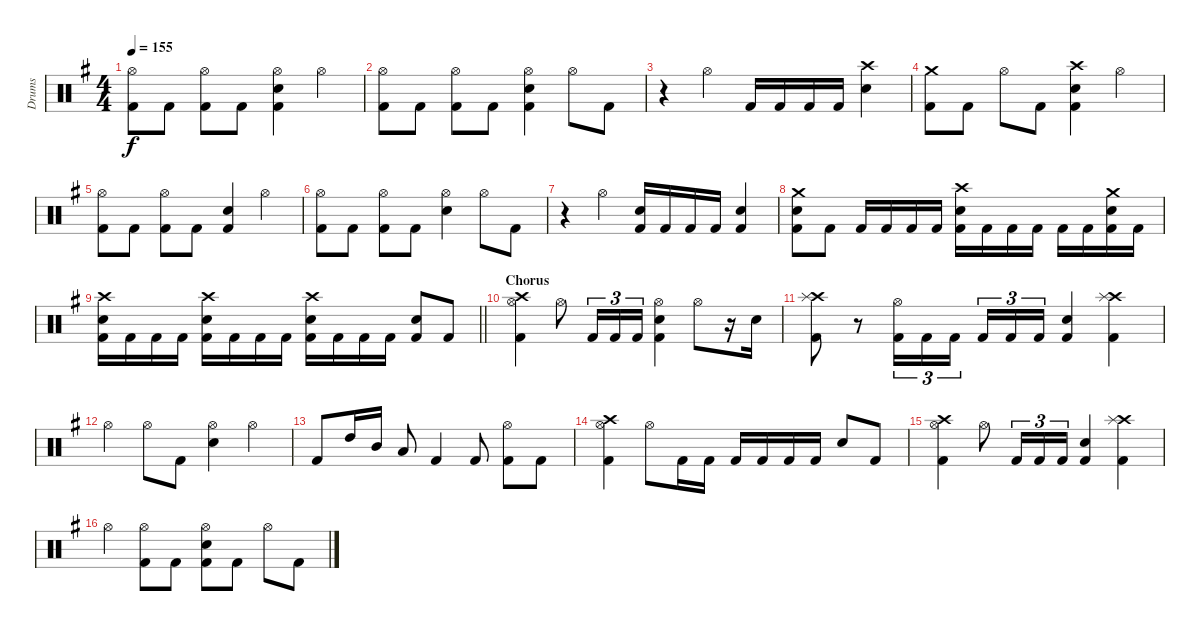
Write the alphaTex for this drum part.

\track ("Drums" "Drums") {instrument percussion}
\staff {score}
\articulation defaults
\ts (4 4)
\tempo 155
\clef neutral
\ks g
("Hi-Hat (open)" "Kick (hit) 2").8{dy f} "Kick (hit) 2".8 ("Hi-Hat (open)" "Kick (hit) 2").8 "Kick (hit) 2".8 ("Hi-Hat (open)" "Snare (hit) 2" "Kick (hit) 2").4 "Hi-Hat (open)".4 |
("Hi-Hat (open)" "Kick (hit) 2").8 "Kick (hit) 2".8 ("Hi-Hat (open)" "Kick (hit) 2").8 "Kick (hit) 2".8 ("Hi-Hat (open)" "Snare (hit) 2" "Kick (hit) 2").4 "Hi-Hat (open)".8 "Kick (hit) 2".8 |
r.4 "Hi-Hat (open)".4 "Kick (hit) 2".16 "Kick (hit) 2".16 "Kick (hit) 2".16 "Kick (hit) 2".16 ("Crash high (hit)" "Snare (hit) 2").4 |
("Crash medium (hit)" "Kick (hit) 2").8 "Kick (hit) 2".8 "Hi-Hat (open)".8 "Kick (hit) 2".8 ("Crash high (hit)" "Snare (hit) 2" "Kick (hit) 2").4 "Hi-Hat (open)".4 |
("Hi-Hat (open)" "Kick (hit) 2").8 "Kick (hit) 2".8 ("Hi-Hat (open)" "Kick (hit) 2").8 "Kick (hit) 2".8 ("Snare (hit) 2" "Kick (hit) 2").4 "Hi-Hat (open)".4 |
("Hi-Hat (open)" "Kick (hit) 2").8 "Kick (hit) 2".8 ("Hi-Hat (open)" "Kick (hit) 2").8 "Kick (hit) 2".8 ("Hi-Hat (open)" "Snare (hit) 2").4 "Hi-Hat (open)".8 "Kick (hit) 2".8 |
r.4 "Hi-Hat (open)".4 ("Snare (hit) 2" "Kick (hit) 2").16 "Kick (hit) 2".16 "Kick (hit) 2".16 "Kick (hit) 2".16 ("Snare (hit) 2" "Kick (hit) 2").4 |
("Crash medium (hit)" "Snare (hit) 2" "Kick (hit) 2").8 "Kick (hit) 2".8 "Kick (hit) 2".16 "Kick (hit) 2".16 "Kick (hit) 2".16 "Kick (hit) 2".16 ("Crash high (hit)" "Snare (hit) 2" "Kick (hit) 2").16 "Kick (hit) 2".16 "Kick (hit) 2".16 "Kick (hit) 2".16 "Kick (hit) 2".16 "Kick (hit) 2".16 ("Crash medium (hit)" "Snare (hit) 2" "Kick (hit) 2").16 "Kick (hit) 2".16 |
\barLineRight lightlight
("Crash high (hit)" "Snare (hit) 2" "Kick (hit) 2").16 "Kick (hit) 2".16 "Kick (hit) 2".16 "Kick (hit) 2".16 ("Crash high (hit)" "Snare (hit) 2" "Kick (hit) 2").16 "Kick (hit) 2".16 "Kick (hit) 2".16 "Kick (hit) 2".16 ("Crash high (hit)" "Snare (hit) 2" "Kick (hit) 2").16 "Kick (hit) 2".16 "Kick (hit) 2".16 "Kick (hit) 2".16 ("Snare (hit) 2" "Kick (hit) 2").8 "Kick (hit) 2".8 |
\section ("" "Chorus")
("Crash high (hit)" "Hi-Hat (open)" "Kick (hit) 2").4 "Hi-Hat (open)".8 "Kick (hit) 2".16{tu (3 2)} "Kick (hit) 2".16{tu (3 2)} "Kick (hit) 2".16{tu (3 2)} ("Hi-Hat (open)" "Snare (hit) 2" "Kick (hit) 2").4 "Hi-Hat (open)".8 r.16 "Snare (hit) 2".16 |
("Crash high (hit)" "Splash (hit)" "Kick (hit) 2").8 r.8 ("Hi-Hat (open)" "Kick (hit) 2").16{tu (3 2)} "Kick (hit) 2".16{tu (3 2)} "Kick (hit) 2".16{tu (3 2) beam splitsecondary} "Kick (hit) 2".16{tu (3 2)} "Kick (hit) 2".16{tu (3 2)} "Kick (hit) 2".16{tu (3 2)} ("Snare (hit) 2" "Kick (hit) 2").4 ("Crash high (hit)" "Splash (hit)" "Kick (hit) 2").4 |
"Hi-Hat (open)".4 "Hi-Hat (open)".8 "Kick (hit) 2".8 ("Hi-Hat (open)" "Snare (hit) 2").4 "Hi-Hat (open)".4 |
"Kick (hit) 2".8 "High Tom (hit)".16 "Mid Tom (hit)".16 "Low Tom (hit)".8 "Kick (hit) 2".4 "Kick (hit) 2".8 ("Hi-Hat (open)" "Kick (hit) 2").8 "Kick (hit) 2".8 |
("Crash high (hit)" "Hi-Hat (open)" "Kick (hit) 2").4 "Hi-Hat (open)".8 "Kick (hit) 2".16 "Kick (hit) 2".16 "Kick (hit) 2".16 "Kick (hit) 2".16 "Kick (hit) 2".16 "Kick (hit) 2".16 "Snare (hit) 2".8 "Kick (hit) 2".8 |
("Crash high (hit)" "Hi-Hat (open)" "Kick (hit) 2").4 "Hi-Hat (open)".8 "Kick (hit) 2".16{tu (3 2)} "Kick (hit) 2".16{tu (3 2)} "Kick (hit) 2".16{tu (3 2)} ("Snare (hit) 2" "Kick (hit) 2").4 ("Crash high (hit)" "Splash (hit)" "Kick (hit) 2").4 |
"Hi-Hat (open)".4 ("Hi-Hat (open)" "Kick (hit) 2").8 "Kick (hit) 2".8 ("Hi-Hat (open)" "Snare (hit) 2" "Kick (hit) 2").8 "Kick (hit) 2".8 "Hi-Hat (open)".8 "Kick (hit) 2".8
